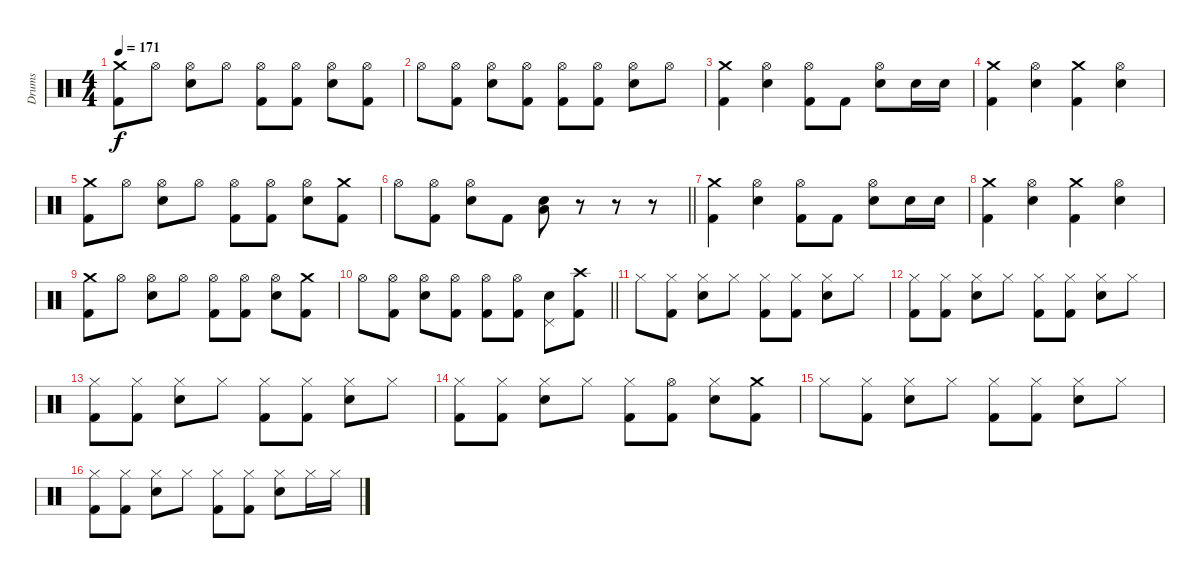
\track ("Drums" "Drums") {instrument percussion}
\staff {score}
\articulation defaults
\ts (4 4)
\tempo 171
\clef neutral
\ks c
("Crash medium (hit)" "Kick (hit) 2").8{dy f} "Hi-Hat (open)".8 ("Hi-Hat (open)" "Electric Snare (hit)").8 "Hi-Hat (open)".8 ("Hi-Hat (open)" "Kick (hit) 2").8 ("Hi-Hat (open)" "Kick (hit) 2").8 ("Hi-Hat (open)" "Electric Snare (hit)").8 ("Hi-Hat (open)" "Kick (hit) 2").8 |
"Hi-Hat (open)".8 ("Hi-Hat (open)" "Kick (hit) 2").8 ("Hi-Hat (open)" "Electric Snare (hit)").8 ("Hi-Hat (open)" "Kick (hit) 2").8 ("Hi-Hat (open)" "Kick (hit) 2").8 ("Hi-Hat (open)" "Kick (hit) 2").8 ("Hi-Hat (open)" "Electric Snare (hit)").8 "Hi-Hat (open)".8 |
("Crash medium (hit)" "Kick (hit) 2").4 ("Hi-Hat (open)" "Electric Snare (hit)").4 ("Hi-Hat (open)" "Kick (hit) 2").8 "Kick (hit) 2".8 ("Hi-Hat (open)" "Electric Snare (hit)").8 "Electric Snare (hit)".16 "Electric Snare (hit)".16 |
("Crash medium (hit)" "Kick (hit) 2").4 ("Hi-Hat (open)" "Electric Snare (hit)").4 ("Crash medium (hit)" "Kick (hit) 2").4 ("Hi-Hat (open)" "Electric Snare (hit)").4 |
("Crash medium (hit)" "Kick (hit) 2").8 "Hi-Hat (open)".8 ("Hi-Hat (open)" "Electric Snare (hit)").8 "Hi-Hat (open)".8 ("Hi-Hat (open)" "Kick (hit) 2").8 ("Hi-Hat (open)" "Kick (hit) 2").8 ("Hi-Hat (open)" "Electric Snare (hit)").8 ("Crash medium (hit)" "Kick (hit) 2").8 |
\barLineRight lightlight "Hi-Hat (open)".8
("Hi-Hat (open)" "Kick (hit) 2").8 ("Hi-Hat (open)" "Electric Snare (hit)").8 "Kick (hit) 2".8 ("Electric Snare (hit)" "Low Floor Tom (hit)").8 r.8 r.8 r.8 |
("Crash medium (hit)" "Kick (hit) 2").4 ("Hi-Hat (open)" "Electric Snare (hit)").4 ("Hi-Hat (open)" "Kick (hit) 2").8 "Kick (hit) 2".8 ("Hi-Hat (open)" "Electric Snare (hit)").8 "Electric Snare (hit)".16 "Electric Snare (hit)".16 |
("Crash medium (hit)" "Kick (hit) 2").4 ("Hi-Hat (open)" "Electric Snare (hit)").4 ("Crash medium (hit)" "Kick (hit) 2").4 ("Hi-Hat (open)" "Electric Snare (hit)").4 |
("Crash medium (hit)" "Kick (hit) 2").8 "Hi-Hat (open)".8 ("Hi-Hat (open)" "Electric Snare (hit)").8 "Hi-Hat (open)".8 ("Hi-Hat (open)" "Kick (hit) 2").8 ("Hi-Hat (open)" "Kick (hit) 2").8 ("Hi-Hat (open)" "Electric Snare (hit)").8 ("Crash medium (hit)" "Kick (hit) 2").8 |
\barLineRight lightlight "Hi-Hat (open)".8
("Hi-Hat (open)" "Kick (hit) 2").8 ("Hi-Hat (open)" "Electric Snare (hit)").8 ("Hi-Hat (open)" "Kick (hit) 2").8 ("Hi-Hat (open)" "Kick (hit) 2").8 ("Hi-Hat (open)" "Kick (hit) 2").8 ("Pedal Hi-Hat (hit)" "Electric Snare (hit)").8 ("Crash high (hit)" "Kick (hit) 2").8 |
"Hi-Hat (closed)".8 ("Hi-Hat (closed)" "Kick (hit) 2").8 ("Hi-Hat (closed)" "Electric Snare (hit)").8 "Hi-Hat (closed)".8 ("Hi-Hat (closed)" "Kick (hit) 2").8 ("Hi-Hat (closed)" "Kick (hit) 2").8 ("Hi-Hat (closed)" "Electric Snare (hit)").8 "Hi-Hat (closed)".8 |
("Hi-Hat (closed)" "Kick (hit) 2").8 ("Hi-Hat (closed)" "Kick (hit) 2").8 ("Hi-Hat (closed)" "Electric Snare (hit)").8 "Hi-Hat (closed)".8 ("Hi-Hat (closed)" "Kick (hit) 2").8 ("Hi-Hat (closed)" "Kick (hit) 2").8 ("Hi-Hat (closed)" "Electric Snare (hit)").8 "Hi-Hat (closed)".8 |
("Hi-Hat (closed)" "Kick (hit) 2").8 ("Hi-Hat (closed)" "Kick (hit) 2").8 ("Hi-Hat (closed)" "Electric Snare (hit)").8 "Hi-Hat (closed)".8 ("Hi-Hat (closed)" "Kick (hit) 2").8 ("Hi-Hat (closed)" "Kick (hit) 2").8 ("Hi-Hat (closed)" "Electric Snare (hit)").8 "Hi-Hat (closed)".8 |
("Hi-Hat (closed)" "Kick (hit) 2").8 ("Hi-Hat (closed)" "Kick (hit) 2").8 ("Hi-Hat (closed)" "Electric Snare (hit)").8 "Hi-Hat (closed)".8 ("Hi-Hat (closed)" "Kick (hit) 2").8 ("Hi-Hat (open)" "Kick (hit) 2").8 ("Hi-Hat (closed)" "Electric Snare (hit)").8 ("Crash medium (hit)" "Kick (hit) 2").8 |
"Hi-Hat (closed)".8 ("Hi-Hat (closed)" "Kick (hit) 2").8 ("Hi-Hat (closed)" "Electric Snare (hit)").8 "Hi-Hat (closed)".8 ("Hi-Hat (closed)" "Kick (hit) 2").8 ("Hi-Hat (closed)" "Kick (hit) 2").8 ("Hi-Hat (closed)" "Electric Snare (hit)").8 "Hi-Hat (closed)".8 |
("Hi-Hat (closed)" "Kick (hit) 2").8 ("Hi-Hat (closed)" "Kick (hit) 2").8 ("Hi-Hat (closed)" "Electric Snare (hit)").8 "Hi-Hat (closed)".8 ("Hi-Hat (closed)" "Kick (hit) 2").8 ("Hi-Hat (closed)" "Kick (hit) 2").8 ("Hi-Hat (closed)" "Electric Snare (hit)").8 "Hi-Hat (closed)".16 "Hi-Hat (closed)".16
